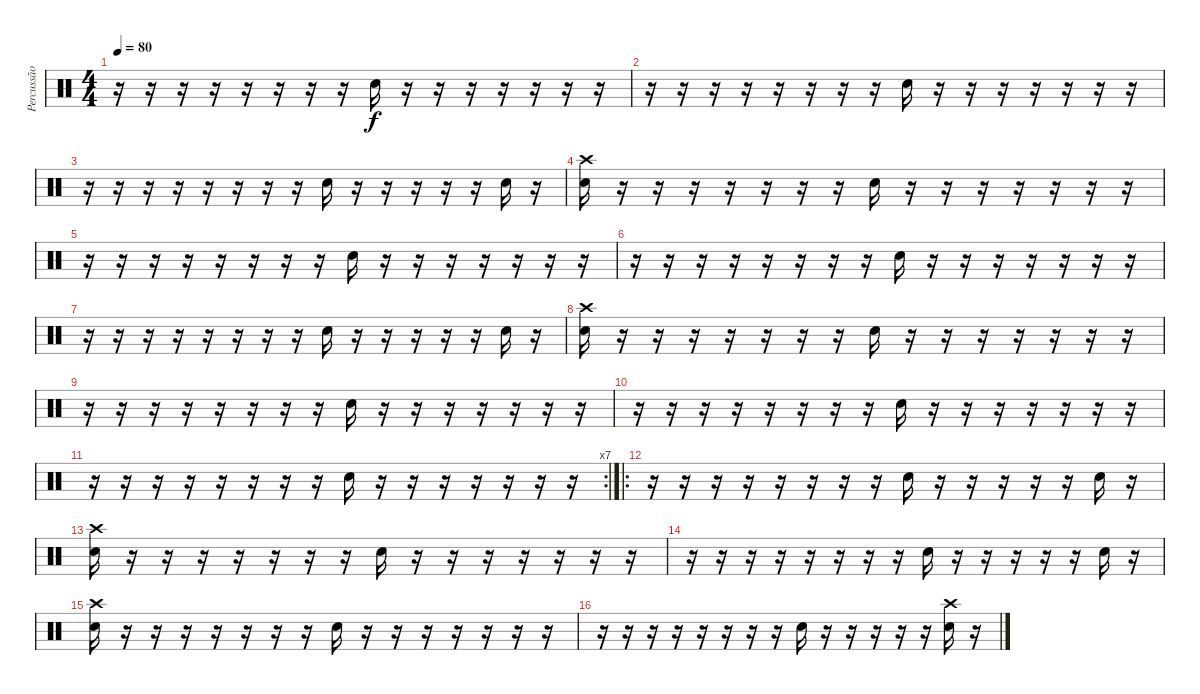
\track ("Percussão" "Percussão") {instrument percussion}
\staff {score}
\articulation defaults
\ts (4 4)
\tempo 80
\clef neutral
\ks c
r.16{dy f} r.16 r.16 r.16 r.16 r.16 r.16 r.16 "Electric Snare (hit)".16 r.16 r.16 r.16 r.16 r.16 r.16 r.16 |
r.16 r.16 r.16 r.16 r.16 r.16 r.16 r.16 "Electric Snare (hit)".16 r.16 r.16 r.16 r.16 r.16 r.16 r.16 |
r.16 r.16 r.16 r.16 r.16 r.16 r.16 r.16 "Electric Snare (hit)".16 r.16 r.16 r.16 r.16 r.16 "Electric Snare (hit)".16 r.16 |
("Crash high (hit)" "Electric Snare (hit)").16 r.16 r.16 r.16 r.16 r.16 r.16 r.16 "Electric Snare (hit)".16 r.16 r.16 r.16 r.16 r.16 r.16 r.16 |
r.16 r.16 r.16 r.16 r.16 r.16 r.16 r.16 "Electric Snare (hit)".16 r.16 r.16 r.16 r.16 r.16 r.16 r.16 |
r.16 r.16 r.16 r.16 r.16 r.16 r.16 r.16 "Electric Snare (hit)".16 r.16 r.16 r.16 r.16 r.16 r.16 r.16 |
r.16 r.16 r.16 r.16 r.16 r.16 r.16 r.16 "Electric Snare (hit)".16 r.16 r.16 r.16 r.16 r.16 "Electric Snare (hit)".16 r.16 |
("Crash high (hit)" "Electric Snare (hit)").16 r.16 r.16 r.16 r.16 r.16 r.16 r.16 "Electric Snare (hit)".16 r.16 r.16 r.16 r.16 r.16 r.16 r.16 |
r.16 r.16 r.16 r.16 r.16 r.16 r.16 r.16 "Electric Snare (hit)".16 r.16 r.16 r.16 r.16 r.16 r.16 r.16 |
r.16 r.16 r.16 r.16 r.16 r.16 r.16 r.16 "Electric Snare (hit)".16 r.16 r.16 r.16 r.16 r.16 r.16 r.16 |
\rc 7
r.16 r.16 r.16 r.16 r.16 r.16 r.16 r.16 "Electric Snare (hit)".16 r.16 r.16 r.16 r.16 r.16 r.16 r.16 |
\ro
r.16 r.16 r.16 r.16 r.16 r.16 r.16 r.16 "Electric Snare (hit)".16 r.16 r.16 r.16 r.16 r.16 "Electric Snare (hit)".16 r.16 |
("Crash high (hit)" "Electric Snare (hit)").16 r.16 r.16 r.16 r.16 r.16 r.16 r.16 "Electric Snare (hit)".16 r.16 r.16 r.16 r.16 r.16 r.16 r.16 |
r.16 r.16 r.16 r.16 r.16 r.16 r.16 r.16 "Electric Snare (hit)".16 r.16 r.16 r.16 r.16 r.16 "Electric Snare (hit)".16 r.16 |
("Crash high (hit)" "Electric Snare (hit)").16 r.16 r.16 r.16 r.16 r.16 r.16 r.16 "Electric Snare (hit)".16 r.16 r.16 r.16 r.16 r.16 r.16 r.16 |
r.16 r.16 r.16 r.16 r.16 r.16 r.16 r.16 "Electric Snare (hit)".16 r.16 r.16 r.16 r.16 r.16 ("Crash high (hit)" "Electric Snare (hit)").16 r.16
